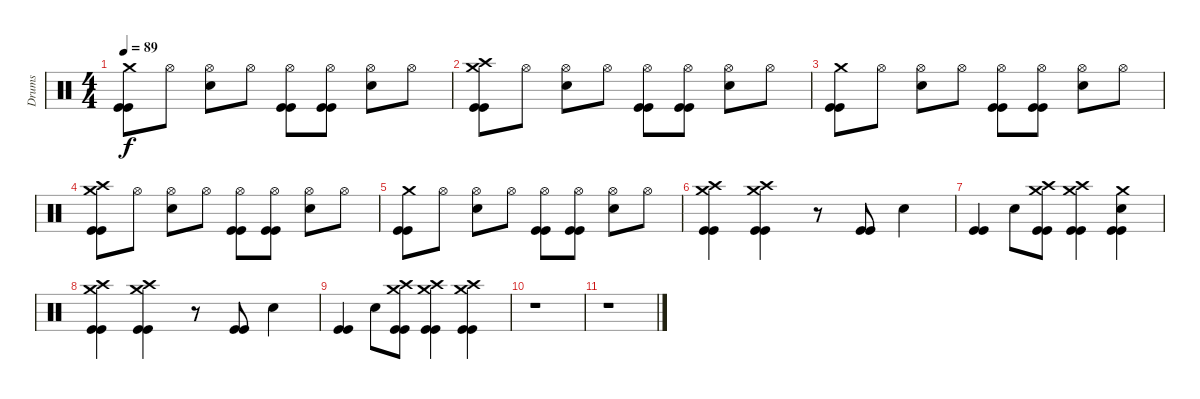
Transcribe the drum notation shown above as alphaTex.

\track ("Drums" "Drums") {instrument percussion}
\staff {score}
\articulation defaults
\ts (4 4)
\tempo 89
\clef neutral
\ks c
("Crash medium (hit)" "Kick (hit)" "Kick (hit)").8{dy f} "Hi-Hat (open)".8 ("Hi-Hat (open)" "Electric Snare (hit)").8 "Hi-Hat (open)".8 ("Hi-Hat (open)" "Kick (hit)" "Kick (hit)").8 ("Hi-Hat (open)" "Kick (hit)" "Kick (hit)").8 ("Hi-Hat (open)" "Electric Snare (hit)").8 "Hi-Hat (open)".8 |
("Crash medium (hit)" "Crash high (hit)" "Kick (hit)" "Kick (hit)").8 "Hi-Hat (open)".8 ("Hi-Hat (open)" "Electric Snare (hit)").8 "Hi-Hat (open)".8 ("Hi-Hat (open)" "Kick (hit)" "Kick (hit)").8 ("Hi-Hat (open)" "Kick (hit)" "Kick (hit)").8 ("Hi-Hat (open)" "Electric Snare (hit)").8 "Hi-Hat (open)".8 |
("Crash medium (hit)" "Kick (hit)" "Kick (hit)").8 "Hi-Hat (open)".8 ("Hi-Hat (open)" "Electric Snare (hit)").8 "Hi-Hat (open)".8 ("Hi-Hat (open)" "Kick (hit)" "Kick (hit)").8 ("Hi-Hat (open)" "Kick (hit)" "Kick (hit)").8 ("Hi-Hat (open)" "Electric Snare (hit)").8 "Hi-Hat (open)".8 |
("Crash medium (hit)" "Crash high (hit)" "Kick (hit)" "Kick (hit)").8 "Hi-Hat (open)".8 ("Hi-Hat (open)" "Electric Snare (hit)").8 "Hi-Hat (open)".8 ("Hi-Hat (open)" "Kick (hit)" "Kick (hit)").8 ("Hi-Hat (open)" "Kick (hit)" "Kick (hit)").8 ("Hi-Hat (open)" "Electric Snare (hit)").8 "Hi-Hat (open)".8 |
("Crash medium (hit)" "Kick (hit)" "Kick (hit)").8 "Hi-Hat (open)".8 ("Hi-Hat (open)" "Electric Snare (hit)").8 "Hi-Hat (open)".8 ("Hi-Hat (open)" "Kick (hit)" "Kick (hit)").8 ("Hi-Hat (open)" "Kick (hit)" "Kick (hit)").8 ("Hi-Hat (open)" "Electric Snare (hit)").8 "Hi-Hat (open)".8 |
("Crash high (hit)" "Crash medium (hit)" "Kick (hit)" "Kick (hit)").4 ("Crash high (hit)" "Crash medium (hit)" "Kick (hit)" "Kick (hit)").4 r.8 ("Kick (hit)" "Kick (hit)").8 "Electric Snare (hit)".4 |
("Kick (hit)" "Kick (hit)").4 "Electric Snare (hit)".8 ("Crash high (hit)" "Crash medium (hit)" "Kick (hit)" "Kick (hit)").8 ("Crash high (hit)" "Crash medium (hit)" "Kick (hit)" "Kick (hit)").4 ("Crash medium (hit)" "Electric Snare (hit)" "Kick (hit)" "Kick (hit)").4 |
("Crash high (hit)" "Crash medium (hit)" "Kick (hit)" "Kick (hit)").4 ("Crash high (hit)" "Crash medium (hit)" "Kick (hit)" "Kick (hit)").4 r.8 ("Kick (hit)" "Kick (hit)").8 "Electric Snare (hit)".4 |
("Kick (hit)" "Kick (hit)").4 "Electric Snare (hit)".8 ("Crash high (hit)" "Crash medium (hit)" "Kick (hit)" "Kick (hit)").8 ("Crash high (hit)" "Crash medium (hit)" "Kick (hit)" "Kick (hit)").4 ("Crash high (hit)" "Crash medium (hit)" "Kick (hit)" "Kick (hit)").4 |
r.1 |
r.1
